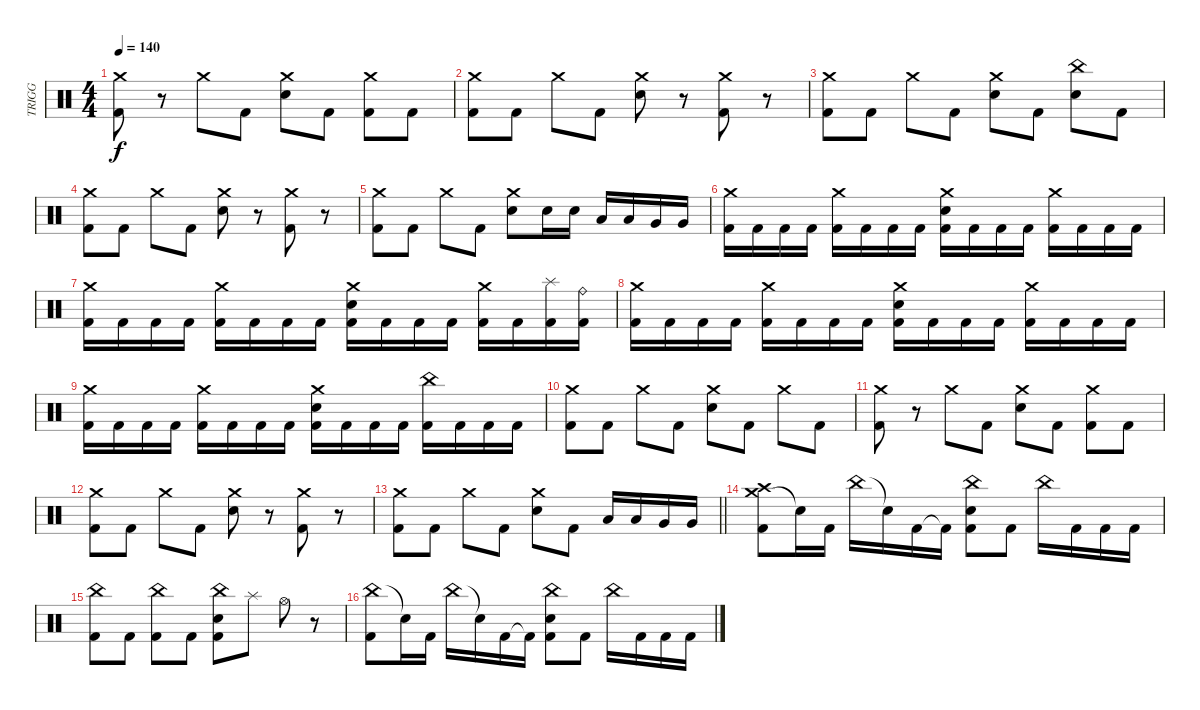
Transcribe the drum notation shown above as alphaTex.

\track ("TRIGG" "TRIGG") {instrument percussion}
\staff {score}
\articulation defaults
\ts (4 4)
\tempo 140
\clef neutral
\ks c
("Crash medium (hit)" "Kick (hit) 2").8{dy f} r.8 "Crash medium (hit)".8 "Kick (hit) 2".8 ("Crash medium (hit)" "Electric Snare (hit)").8 "Kick (hit) 2".8 ("Crash medium (hit)" "Kick (hit) 2").8 "Kick (hit) 2".8 |
("Crash medium (hit)" "Kick (hit) 2").8 "Kick (hit) 2".8 "Crash medium (hit)".8 "Kick (hit) 2".8 ("Crash medium (hit)" "Electric Snare (hit)").8 r.8 ("Crash medium (hit)" "Kick (hit) 2").8 r.8 |
("Crash medium (hit)" "Kick (hit) 2").8 "Kick (hit) 2".8 "Crash medium (hit)".8 "Kick (hit) 2".8 ("Crash medium (hit)" "Electric Snare (hit)").8 "Kick (hit) 2".8 ("China (hit)" "Electric Snare (hit)").8 "Kick (hit) 2".8 |
("Crash medium (hit)" "Kick (hit) 2").8 "Kick (hit) 2".8 "Crash medium (hit)".8 "Kick (hit) 2".8 ("Crash medium (hit)" "Electric Snare (hit)").8 r.8 ("Crash medium (hit)" "Kick (hit) 2").8 r.8 |
("Crash medium (hit)" "Kick (hit) 2").8 "Kick (hit) 2".8 "Crash medium (hit)".8 "Kick (hit) 2".8 ("Crash medium (hit)" "Electric Snare (hit)").8 "Electric Snare (hit)".16 "Electric Snare (hit)".16 "Low Tom (hit)".16 "Low Tom (hit)".16 "Very Low Tom (hit)".16 "Very Low Tom (hit)".16 |
("Crash medium (hit)" "Kick (hit) 2").16 "Kick (hit) 2".16 "Kick (hit) 2".16 "Kick (hit) 2".16 ("Crash medium (hit)" "Kick (hit) 2").16 "Kick (hit) 2".16 "Kick (hit) 2".16 "Kick (hit) 2".16 ("Crash medium (hit)" "Electric Snare (hit)" "Kick (hit) 2").16 "Kick (hit) 2".16 "Kick (hit) 2".16 "Kick (hit) 2".16 ("Crash medium (hit)" "Kick (hit) 2").16 "Kick (hit) 2".16 "Kick (hit) 2".16 "Kick (hit) 2".16 |
("Crash medium (hit)" "Kick (hit) 2").16 "Kick (hit) 2".16 "Kick (hit) 2".16 "Kick (hit) 2".16 ("Crash medium (hit)" "Kick (hit) 2").16 "Kick (hit) 2".16 "Kick (hit) 2".16 "Kick (hit) 2".16 ("Crash medium (hit)" "Electric Snare (hit)" "Kick (hit) 2").16 "Kick (hit) 2".16 "Kick (hit) 2".16 "Kick (hit) 2".16 ("Crash medium (hit)" "Kick (hit) 2").16 "Kick (hit) 2".16 ("Splash (hit)" "Kick (hit) 2").16 ("Ride (bell)" "Kick (hit) 2").16 |
("Crash medium (hit)" "Kick (hit) 2").16 "Kick (hit) 2".16 "Kick (hit) 2".16 "Kick (hit) 2".16 ("Crash medium (hit)" "Kick (hit) 2").16 "Kick (hit) 2".16 "Kick (hit) 2".16 "Kick (hit) 2".16 ("Crash medium (hit)" "Electric Snare (hit)" "Kick (hit) 2").16 "Kick (hit) 2".16 "Kick (hit) 2".16 "Kick (hit) 2".16 ("Crash medium (hit)" "Kick (hit) 2").16 "Kick (hit) 2".16 "Kick (hit) 2".16 "Kick (hit) 2".16 |
("Crash medium (hit)" "Kick (hit) 2").16 "Kick (hit) 2".16 "Kick (hit) 2".16 "Kick (hit) 2".16 ("Crash medium (hit)" "Kick (hit) 2").16 "Kick (hit) 2".16 "Kick (hit) 2".16 "Kick (hit) 2".16 ("Crash medium (hit)" "Electric Snare (hit)" "Kick (hit) 2").16 "Kick (hit) 2".16 "Kick (hit) 2".16 "Kick (hit) 2".16 ("China (hit)" "Kick (hit) 2").16 "Kick (hit) 2".16 "Kick (hit) 2".16 "Kick (hit) 2".16 |
("Crash medium (hit)" "Kick (hit) 2").8 "Kick (hit) 2".8 "Crash medium (hit)".8 "Kick (hit) 2".8 ("Crash medium (hit)" "Electric Snare (hit)").8 "Kick (hit) 2".8 "Crash medium (hit)".8 "Kick (hit) 2".8 |
("Crash medium (hit)" "Kick (hit) 2").8 r.8 "Crash medium (hit)".8 "Kick (hit) 2".8 ("Crash medium (hit)" "Electric Snare (hit)").8 "Kick (hit) 2".8 ("Crash medium (hit)" "Kick (hit) 2").8 "Kick (hit) 2".8 |
("Crash medium (hit)" "Kick (hit) 2").8 "Kick (hit) 2".8 "Crash medium (hit)".8 "Kick (hit) 2".8 ("Crash medium (hit)" "Electric Snare (hit)").8 r.8 ("Crash medium (hit)" "Kick (hit) 2").8 r.8 |
\barLineRight lightlight
("Crash medium (hit)" "Kick (hit) 2").8 "Kick (hit) 2".8 "Crash medium (hit)".8 "Kick (hit) 2".8 ("Crash medium (hit)" "Electric Snare (hit)").8 "Kick (hit) 2".8 "Low Tom (hit)".16 "Low Tom (hit)".16 "Very Low Tom (hit)".16 "Very Low Tom (hit)".16 |
("Crash medium (hit)" "Crash high (hit)" "Kick (hit) 2").8 "Snare (hit)"{t}.16 "Kick (hit) 2".16 "China (hit)".16 "Snare (hit)"{t}.16 "Kick (hit) 2".16 "Kick (hit) 2"{t}.16 ("China (hit)" "Electric Snare (hit)" "Kick (hit) 2").8 "Kick (hit) 2".8 "China (hit)".16 "Kick (hit) 2".16 "Kick (hit) 2".16 "Kick (hit) 2".16 |
("China (hit)" "Kick (hit) 2").8 "Kick (hit) 2".8 ("China (hit)" "Kick (hit) 2").8 "Kick (hit) 2".8 ("China (hit)" "Electric Snare (hit)" "Kick (hit) 2").8 "Splash (hit)".8 "Hi-Hat (open)".8 r.8 |
("China (hit)" "Kick (hit) 2").8 "Snare (hit)"{t}.16 "Kick (hit) 2".16 "China (hit)".16 "Snare (hit)"{t}.16 "Kick (hit) 2".16 "Kick (hit) 2"{t}.16 ("China (hit)" "Electric Snare (hit)" "Kick (hit) 2").8 "Kick (hit) 2".8 "China (hit)".16 "Kick (hit) 2".16 "Kick (hit) 2".16 "Kick (hit) 2".16
